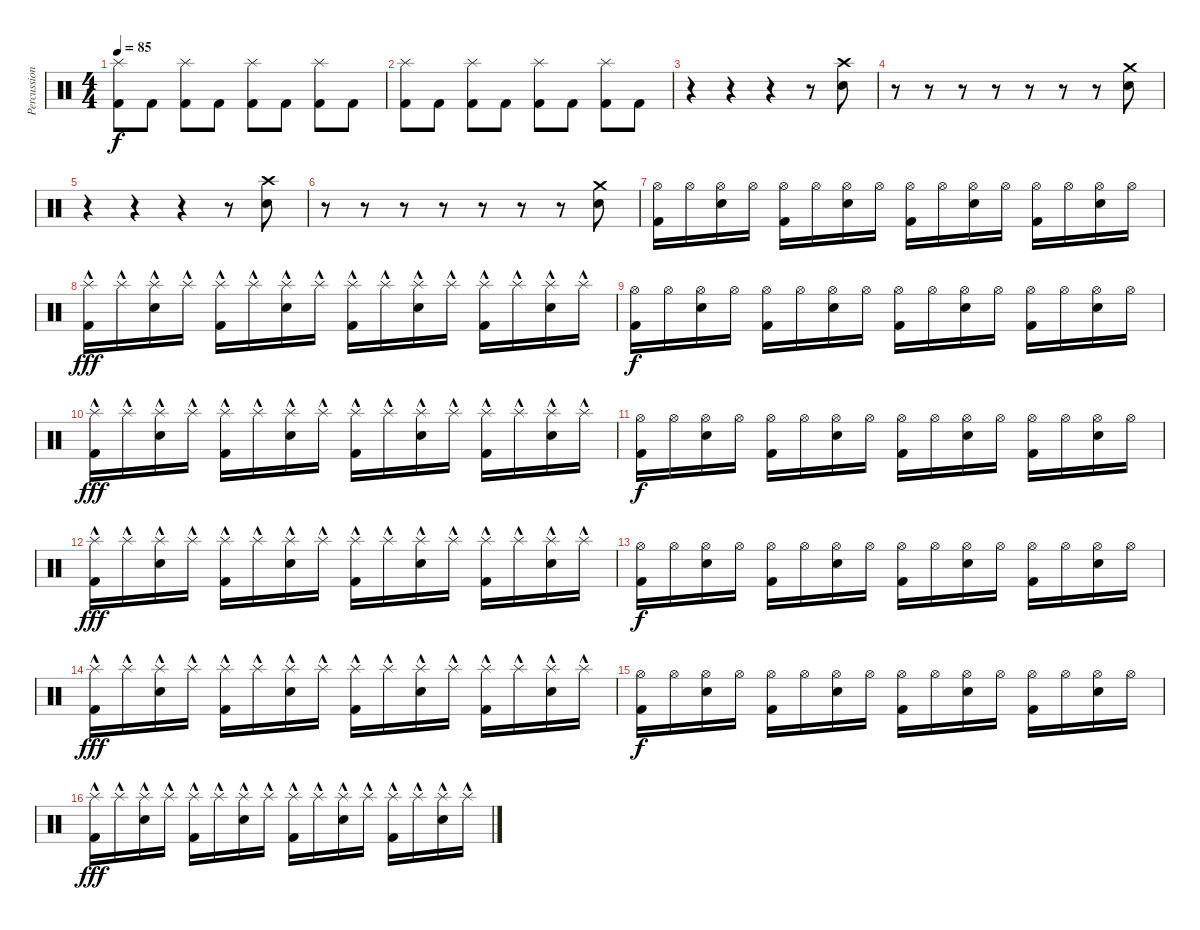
\track ("Percussion" "Percussion") {instrument percussion}
\staff {score}
\articulation defaults
\ts (4 4)
\tempo 85
\clef neutral
\ks c
("Kick (hit) 2" "Splash (hit)").8{dy f} "Kick (hit) 2".8 ("Kick (hit) 2" "Splash (hit)").8 "Kick (hit) 2".8 ("Kick (hit) 2" "Splash (hit)").8 "Kick (hit) 2".8 ("Kick (hit) 2" "Splash (hit)").8 "Kick (hit) 2".8 |
("Kick (hit) 2" "Splash (hit)").8 "Kick (hit) 2".8 ("Kick (hit) 2" "Splash (hit)").8 "Kick (hit) 2".8 ("Kick (hit) 2" "Splash (hit)").8 "Kick (hit) 2".8 ("Kick (hit) 2" "Splash (hit)").8 "Kick (hit) 2".8 |
r.4 r.4 r.4 r.8 ("Crash high (hit)" "Electric Snare (hit)").8 |
r.8 r.8 r.8 r.8 r.8 r.8 r.8 ("Electric Snare (hit)" "Crash medium (hit)").8 |
r.4 r.4 r.4 r.8 ("Crash high (hit)" "Electric Snare (hit)").8 |
r.8 r.8 r.8 r.8 r.8 r.8 r.8 ("Electric Snare (hit)" "Crash medium (hit)").8 |
("Hi-Hat (open)" "Kick (hit) 2").16 "Hi-Hat (open)".16 ("Hi-Hat (open)" "Electric Snare (hit)").16 "Hi-Hat (open)".16 ("Hi-Hat (open)" "Kick (hit) 2").16 "Hi-Hat (open)".16 ("Hi-Hat (open)" "Electric Snare (hit)").16 "Hi-Hat (open)".16 ("Hi-Hat (open)" "Kick (hit) 2").16 "Hi-Hat (open)".16 ("Hi-Hat (open)" "Electric Snare (hit)").16 "Hi-Hat (open)".16 ("Hi-Hat (open)" "Kick (hit) 2").16 "Hi-Hat (open)".16 ("Hi-Hat (open)" "Electric Snare (hit)").16 "Hi-Hat (open)".16 |
("Splash (hit)"{hac} "Kick (hit) 2").16{dy fff} "Splash (hit)"{hac}.16 ("Splash (hit)"{hac} "Electric Snare (hit)").16 "Splash (hit)"{hac}.16 ("Splash (hit)"{hac} "Kick (hit) 2").16 "Splash (hit)"{hac}.16 ("Splash (hit)"{hac} "Electric Snare (hit)").16 "Splash (hit)"{hac}.16 ("Splash (hit)"{hac} "Kick (hit) 2").16 "Splash (hit)"{hac}.16 ("Splash (hit)"{hac} "Electric Snare (hit)").16 "Splash (hit)"{hac}.16 ("Splash (hit)"{hac} "Kick (hit) 2").16 "Splash (hit)"{hac}.16 ("Splash (hit)"{hac} "Electric Snare (hit)").16 "Splash (hit)"{hac}.16 |
("Hi-Hat (open)" "Kick (hit) 2").16{dy f} "Hi-Hat (open)".16 ("Hi-Hat (open)" "Electric Snare (hit)").16 "Hi-Hat (open)".16 ("Hi-Hat (open)" "Kick (hit) 2").16 "Hi-Hat (open)".16 ("Hi-Hat (open)" "Electric Snare (hit)").16 "Hi-Hat (open)".16 ("Hi-Hat (open)" "Kick (hit) 2").16 "Hi-Hat (open)".16 ("Hi-Hat (open)" "Electric Snare (hit)").16 "Hi-Hat (open)".16 ("Hi-Hat (open)" "Kick (hit) 2").16 "Hi-Hat (open)".16 ("Hi-Hat (open)" "Electric Snare (hit)").16 "Hi-Hat (open)".16 |
("Splash (hit)"{hac} "Kick (hit) 2").16{dy fff} "Splash (hit)"{hac}.16 ("Splash (hit)"{hac} "Electric Snare (hit)").16 "Splash (hit)"{hac}.16 ("Splash (hit)"{hac} "Kick (hit) 2").16 "Splash (hit)"{hac}.16 ("Splash (hit)"{hac} "Electric Snare (hit)").16 "Splash (hit)"{hac}.16 ("Splash (hit)"{hac} "Kick (hit) 2").16 "Splash (hit)"{hac}.16 ("Splash (hit)"{hac} "Electric Snare (hit)").16 "Splash (hit)"{hac}.16 ("Splash (hit)"{hac} "Kick (hit) 2").16 "Splash (hit)"{hac}.16 ("Splash (hit)"{hac} "Electric Snare (hit)").16 "Splash (hit)"{hac}.16 |
("Hi-Hat (open)" "Kick (hit) 2").16{dy f} "Hi-Hat (open)".16 ("Hi-Hat (open)" "Electric Snare (hit)").16 "Hi-Hat (open)".16 ("Hi-Hat (open)" "Kick (hit) 2").16 "Hi-Hat (open)".16 ("Hi-Hat (open)" "Electric Snare (hit)").16 "Hi-Hat (open)".16 ("Hi-Hat (open)" "Kick (hit) 2").16 "Hi-Hat (open)".16 ("Hi-Hat (open)" "Electric Snare (hit)").16 "Hi-Hat (open)".16 ("Hi-Hat (open)" "Kick (hit) 2").16 "Hi-Hat (open)".16 ("Hi-Hat (open)" "Electric Snare (hit)").16 "Hi-Hat (open)".16 |
("Splash (hit)"{hac} "Kick (hit) 2").16{dy fff} "Splash (hit)"{hac}.16 ("Splash (hit)"{hac} "Electric Snare (hit)").16 "Splash (hit)"{hac}.16 ("Splash (hit)"{hac} "Kick (hit) 2").16 "Splash (hit)"{hac}.16 ("Splash (hit)"{hac} "Electric Snare (hit)").16 "Splash (hit)"{hac}.16 ("Splash (hit)"{hac} "Kick (hit) 2").16 "Splash (hit)"{hac}.16 ("Splash (hit)"{hac} "Electric Snare (hit)").16 "Splash (hit)"{hac}.16 ("Splash (hit)"{hac} "Kick (hit) 2").16 "Splash (hit)"{hac}.16 ("Splash (hit)"{hac} "Electric Snare (hit)").16 "Splash (hit)"{hac}.16 |
("Hi-Hat (open)" "Kick (hit) 2").16{dy f} "Hi-Hat (open)".16 ("Hi-Hat (open)" "Electric Snare (hit)").16 "Hi-Hat (open)".16 ("Hi-Hat (open)" "Kick (hit) 2").16 "Hi-Hat (open)".16 ("Hi-Hat (open)" "Electric Snare (hit)").16 "Hi-Hat (open)".16 ("Hi-Hat (open)" "Kick (hit) 2").16 "Hi-Hat (open)".16 ("Hi-Hat (open)" "Electric Snare (hit)").16 "Hi-Hat (open)".16 ("Hi-Hat (open)" "Kick (hit) 2").16 "Hi-Hat (open)".16 ("Hi-Hat (open)" "Electric Snare (hit)").16 "Hi-Hat (open)".16 |
("Splash (hit)"{hac} "Kick (hit) 2").16{dy fff} "Splash (hit)"{hac}.16 ("Splash (hit)"{hac} "Electric Snare (hit)").16 "Splash (hit)"{hac}.16 ("Splash (hit)"{hac} "Kick (hit) 2").16 "Splash (hit)"{hac}.16 ("Splash (hit)"{hac} "Electric Snare (hit)").16 "Splash (hit)"{hac}.16 ("Splash (hit)"{hac} "Kick (hit) 2").16 "Splash (hit)"{hac}.16 ("Splash (hit)"{hac} "Electric Snare (hit)").16 "Splash (hit)"{hac}.16 ("Splash (hit)"{hac} "Kick (hit) 2").16 "Splash (hit)"{hac}.16 ("Splash (hit)"{hac} "Electric Snare (hit)").16 "Splash (hit)"{hac}.16 |
("Hi-Hat (open)" "Kick (hit) 2").16{dy f} "Hi-Hat (open)".16 ("Hi-Hat (open)" "Electric Snare (hit)").16 "Hi-Hat (open)".16 ("Hi-Hat (open)" "Kick (hit) 2").16 "Hi-Hat (open)".16 ("Hi-Hat (open)" "Electric Snare (hit)").16 "Hi-Hat (open)".16 ("Hi-Hat (open)" "Kick (hit) 2").16 "Hi-Hat (open)".16 ("Hi-Hat (open)" "Electric Snare (hit)").16 "Hi-Hat (open)".16 ("Hi-Hat (open)" "Kick (hit) 2").16 "Hi-Hat (open)".16 ("Hi-Hat (open)" "Electric Snare (hit)").16 "Hi-Hat (open)".16 |
("Splash (hit)"{hac} "Kick (hit) 2").16{dy fff} "Splash (hit)"{hac}.16 ("Splash (hit)"{hac} "Electric Snare (hit)").16 "Splash (hit)"{hac}.16 ("Splash (hit)"{hac} "Kick (hit) 2").16 "Splash (hit)"{hac}.16 ("Splash (hit)"{hac} "Electric Snare (hit)").16 "Splash (hit)"{hac}.16 ("Splash (hit)"{hac} "Kick (hit) 2").16 "Splash (hit)"{hac}.16 ("Splash (hit)"{hac} "Electric Snare (hit)").16 "Splash (hit)"{hac}.16 ("Splash (hit)"{hac} "Kick (hit) 2").16 "Splash (hit)"{hac}.16 ("Splash (hit)"{hac} "Electric Snare (hit)").16 "Splash (hit)"{hac}.16
